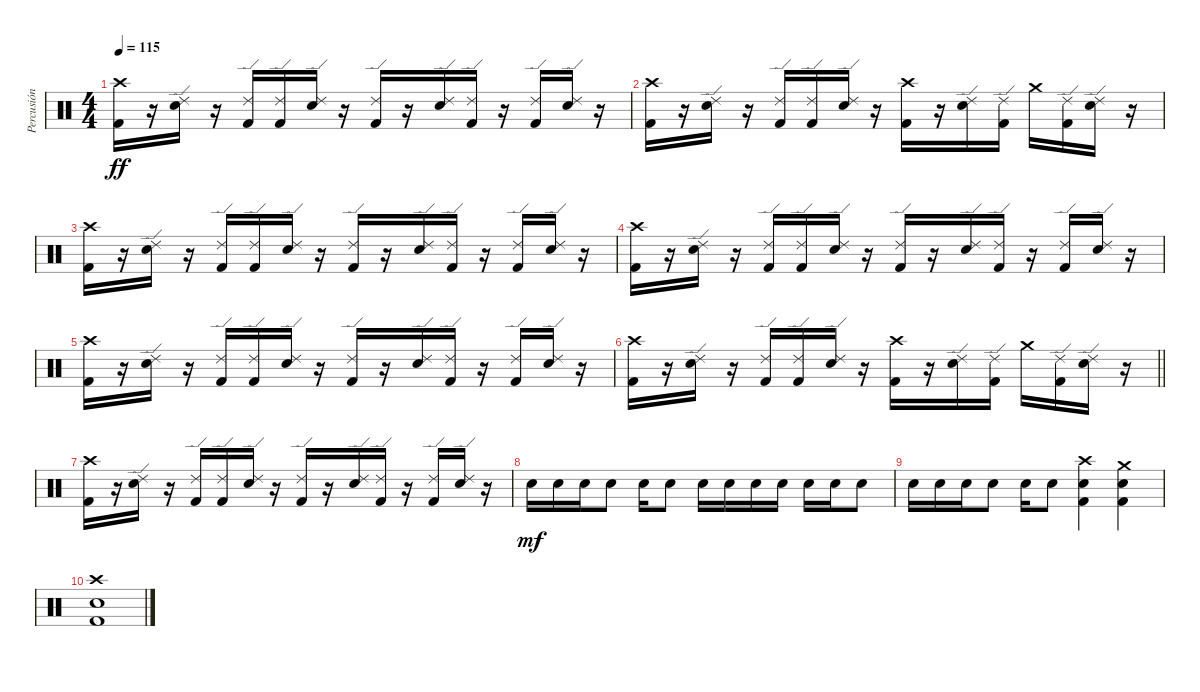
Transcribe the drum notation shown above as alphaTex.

\track ("Percusión" "Percusión") {instrument percussion}
\staff {score}
\articulation defaults
\ts (4 4)
\tempo 115
\clef neutral
\ks c
("Crash high (hit)" "Kick (hit) 2").16{dy ff} r.16 ("Ride (edge) 2" "Snare (hit) 2").16 r.16 ("Ride (edge) 2" "Kick (hit) 2").16 ("Ride (edge) 2" "Kick (hit) 2").16 ("Ride (edge) 2" "Snare (hit) 2").16 r.16 ("Ride (edge) 2" "Kick (hit) 2").16 r.16 ("Ride (edge) 2" "Snare (hit) 2").16 ("Ride (edge) 2" "Kick (hit) 2").16 r.16 ("Ride (edge) 2" "Kick (hit) 2").16 ("Ride (edge) 2" "Snare (hit) 2").16 r.16 |
("Crash high (hit)" "Kick (hit) 2").16 r.16 ("Ride (edge) 2" "Snare (hit) 2").16 r.16 ("Ride (edge) 2" "Kick (hit) 2").16 ("Ride (edge) 2" "Kick (hit) 2").16 ("Ride (edge) 2" "Snare (hit) 2").16 r.16 ("Crash high (hit)" "Kick (hit) 2").16 r.16 ("Ride (edge) 2" "Snare (hit) 2").16 ("Ride (edge) 2" "Kick (hit) 2").16 "Crash medium (hit)".16 ("Ride (edge) 2" "Kick (hit) 2").16 ("Ride (edge) 2" "Snare (hit) 2").16 r.16 |
("Crash high (hit)" "Kick (hit) 2").16 r.16 ("Ride (edge) 2" "Snare (hit) 2").16 r.16 ("Ride (edge) 2" "Kick (hit) 2").16 ("Ride (edge) 2" "Kick (hit) 2").16 ("Ride (edge) 2" "Snare (hit) 2").16 r.16 ("Ride (edge) 2" "Kick (hit) 2").16 r.16 ("Ride (edge) 2" "Snare (hit) 2").16 ("Ride (edge) 2" "Kick (hit) 2").16 r.16 ("Ride (edge) 2" "Kick (hit) 2").16 ("Ride (edge) 2" "Snare (hit) 2").16 r.16 |
("Crash high (hit)" "Kick (hit) 2").16 r.16 ("Ride (edge) 2" "Snare (hit) 2").16 r.16 ("Ride (edge) 2" "Kick (hit) 2").16 ("Ride (edge) 2" "Kick (hit) 2").16 ("Ride (edge) 2" "Snare (hit) 2").16 r.16 ("Ride (edge) 2" "Kick (hit) 2").16 r.16 ("Ride (edge) 2" "Snare (hit) 2").16 ("Ride (edge) 2" "Kick (hit) 2").16 r.16 ("Ride (edge) 2" "Kick (hit) 2").16 ("Ride (edge) 2" "Snare (hit) 2").16 r.16 |
("Crash high (hit)" "Kick (hit) 2").16 r.16 ("Ride (edge) 2" "Snare (hit) 2").16 r.16 ("Ride (edge) 2" "Kick (hit) 2").16 ("Ride (edge) 2" "Kick (hit) 2").16 ("Ride (edge) 2" "Snare (hit) 2").16 r.16 ("Ride (edge) 2" "Kick (hit) 2").16 r.16 ("Ride (edge) 2" "Snare (hit) 2").16 ("Ride (edge) 2" "Kick (hit) 2").16 r.16 ("Ride (edge) 2" "Kick (hit) 2").16 ("Ride (edge) 2" "Snare (hit) 2").16 r.16 |
\barLineRight lightlight
("Crash high (hit)" "Kick (hit) 2").16 r.16 ("Ride (edge) 2" "Snare (hit) 2").16 r.16 ("Ride (edge) 2" "Kick (hit) 2").16 ("Ride (edge) 2" "Kick (hit) 2").16 ("Ride (edge) 2" "Snare (hit) 2").16 r.16 ("Crash high (hit)" "Kick (hit) 2").16 r.16 ("Ride (edge) 2" "Snare (hit) 2").16 ("Ride (edge) 2" "Kick (hit) 2").16 "Crash medium (hit)".16 ("Ride (edge) 2" "Kick (hit) 2").16 ("Ride (edge) 2" "Snare (hit) 2").16 r.16 |
("Crash high (hit)" "Kick (hit) 2").16 r.16 ("Ride (edge) 2" "Snare (hit) 2").16 r.16 ("Ride (edge) 2" "Kick (hit) 2").16 ("Ride (edge) 2" "Kick (hit) 2").16 ("Ride (edge) 2" "Snare (hit) 2").16 r.16 ("Ride (edge) 2" "Kick (hit) 2").16 r.16 ("Ride (edge) 2" "Snare (hit) 2").16 ("Ride (edge) 2" "Kick (hit) 2").16 r.16 ("Ride (edge) 2" "Kick (hit) 2").16 ("Ride (edge) 2" "Snare (hit) 2").16 r.16 |
"Snare (hit) 2".16{dy mf} "Snare (hit) 2".16 "Snare (hit) 2".16 "Snare (hit) 2".8 "Snare (hit) 2".16 "Snare (hit) 2".8 "Snare (hit) 2".16 "Snare (hit) 2".16 "Snare (hit) 2".16 "Snare (hit) 2".16 "Snare (hit) 2".16 "Snare (hit) 2".16 "Snare (hit) 2".8 |
"Snare (hit) 2".16 "Snare (hit) 2".16 "Snare (hit) 2".16 "Snare (hit) 2".8 "Snare (hit) 2".16 "Snare (hit) 2".8 ("Crash high (hit)" "Snare (hit) 2" "Kick (hit) 2").4 ("Crash medium (hit)" "Snare (hit) 2" "Kick (hit) 2").4 |
("Crash high (hit)" "Snare (hit) 2" "Kick (hit) 2").1
